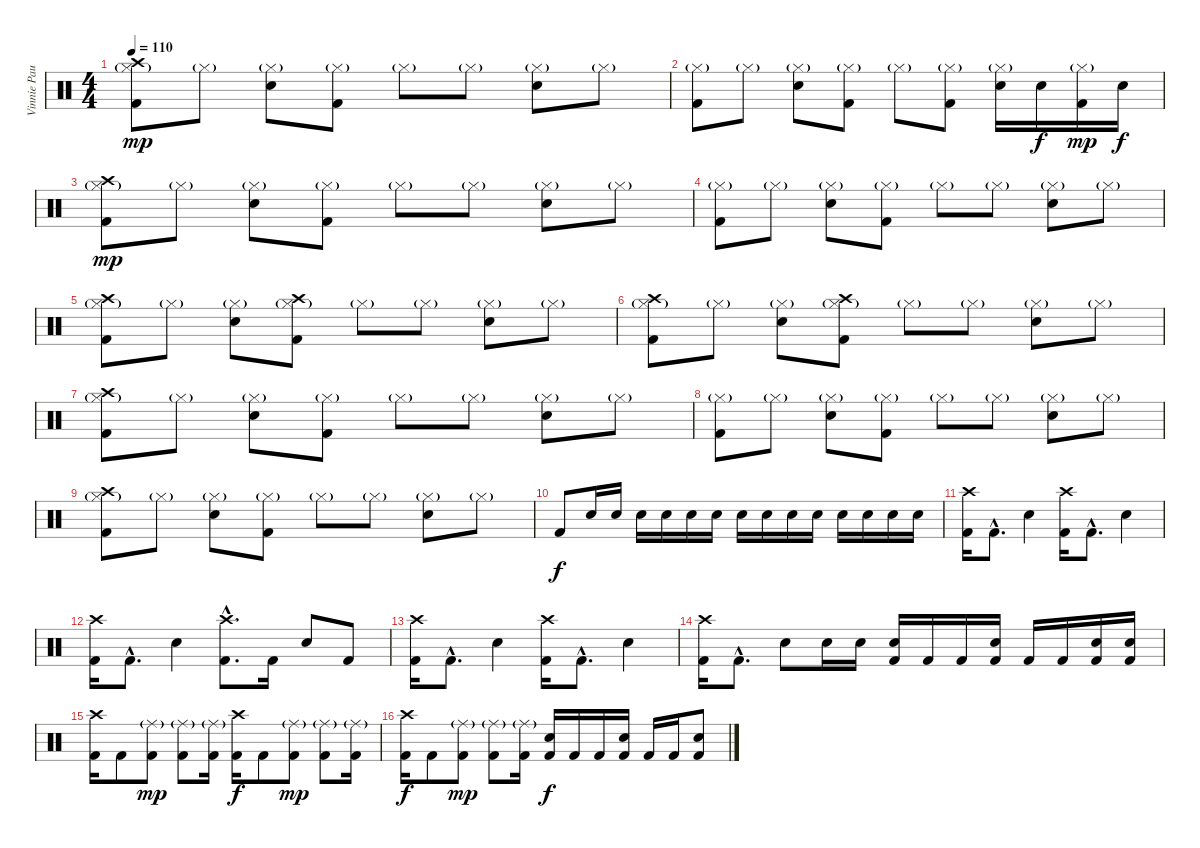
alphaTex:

\track ("Vinnie Paul" "Vinnie Pau") {instrument percussion}
\staff {score}
\articulation defaults
\ts (4 4)
\tempo 110
\clef neutral
\ks c
("Crash high (hit)" "Hi-Hat (closed)"{g} "Kick (hit) 2").8{dy mp} "Hi-Hat (closed)"{g}.8 ("Hi-Hat (closed)"{g} "Electric Snare (hit)").8 ("Hi-Hat (closed)"{g} "Kick (hit) 2").8 "Hi-Hat (closed)"{g}.8 "Hi-Hat (closed)"{g}.8 ("Hi-Hat (closed)"{g} "Electric Snare (hit)").8 "Hi-Hat (closed)"{g}.8 |
("Hi-Hat (closed)"{g} "Kick (hit) 2").8 "Hi-Hat (closed)"{g}.8 ("Hi-Hat (closed)"{g} "Electric Snare (hit)").8 ("Hi-Hat (closed)"{g} "Kick (hit) 2").8 "Hi-Hat (closed)"{g}.8 ("Hi-Hat (closed)"{g} "Kick (hit) 2").8 ("Hi-Hat (closed)"{g} "Electric Snare (hit)").16 "Electric Snare (hit)".16{dy f} ("Hi-Hat (closed)"{g} "Kick (hit) 2").16{dy mp} "Electric Snare (hit)".16{dy f} |
("Crash high (hit)" "Hi-Hat (closed)"{g} "Kick (hit) 2").8{dy mp} "Hi-Hat (closed)"{g}.8 ("Hi-Hat (closed)"{g} "Electric Snare (hit)").8 ("Hi-Hat (closed)"{g} "Kick (hit) 2").8 "Hi-Hat (closed)"{g}.8 "Hi-Hat (closed)"{g}.8 ("Hi-Hat (closed)"{g} "Electric Snare (hit)").8 "Hi-Hat (closed)"{g}.8 |
("Hi-Hat (closed)"{g} "Kick (hit) 2").8 "Hi-Hat (closed)"{g}.8 ("Hi-Hat (closed)"{g} "Electric Snare (hit)").8 ("Hi-Hat (closed)"{g} "Kick (hit) 2").8 "Hi-Hat (closed)"{g}.8 "Hi-Hat (closed)"{g}.8 ("Hi-Hat (closed)"{g} "Electric Snare (hit)").8 "Hi-Hat (closed)"{g}.8 |
("Crash high (hit)" "Hi-Hat (closed)"{g} "Kick (hit) 2").8 "Hi-Hat (closed)"{g}.8 ("Hi-Hat (closed)"{g} "Electric Snare (hit)").8 ("Crash high (hit)" "Hi-Hat (closed)"{g} "Kick (hit) 2").8 "Hi-Hat (closed)"{g}.8 "Hi-Hat (closed)"{g}.8 ("Hi-Hat (closed)"{g} "Electric Snare (hit)").8 "Hi-Hat (closed)"{g}.8 |
("Crash high (hit)" "Hi-Hat (closed)"{g} "Kick (hit) 2").8 "Hi-Hat (closed)"{g}.8 ("Hi-Hat (closed)"{g} "Electric Snare (hit)").8 ("Crash high (hit)" "Hi-Hat (closed)"{g} "Kick (hit) 2").8 "Hi-Hat (closed)"{g}.8 "Hi-Hat (closed)"{g}.8 ("Hi-Hat (closed)"{g} "Electric Snare (hit)").8 "Hi-Hat (closed)"{g}.8 |
("Crash high (hit)" "Hi-Hat (closed)"{g} "Kick (hit) 2").8 "Hi-Hat (closed)"{g}.8 ("Hi-Hat (closed)"{g} "Electric Snare (hit)").8 ("Hi-Hat (closed)"{g} "Kick (hit) 2").8 "Hi-Hat (closed)"{g}.8 "Hi-Hat (closed)"{g}.8 ("Hi-Hat (closed)"{g} "Electric Snare (hit)").8 "Hi-Hat (closed)"{g}.8 |
("Hi-Hat (closed)"{g} "Kick (hit) 2").8 "Hi-Hat (closed)"{g}.8 ("Hi-Hat (closed)"{g} "Electric Snare (hit)").8 ("Hi-Hat (closed)"{g} "Kick (hit) 2").8 "Hi-Hat (closed)"{g}.8 "Hi-Hat (closed)"{g}.8 ("Hi-Hat (closed)"{g} "Electric Snare (hit)").8 "Hi-Hat (closed)"{g}.8 |
("Crash high (hit)" "Hi-Hat (closed)"{g} "Kick (hit) 2").8 "Hi-Hat (closed)"{g}.8 ("Hi-Hat (closed)"{g} "Electric Snare (hit)").8 ("Hi-Hat (closed)"{g} "Kick (hit) 2").8 "Hi-Hat (closed)"{g}.8 "Hi-Hat (closed)"{g}.8 ("Hi-Hat (closed)"{g} "Electric Snare (hit)").8 "Hi-Hat (closed)"{g}.8 |
"Kick (hit) 2".8{dy f} "Electric Snare (hit)".16 "Electric Snare (hit)".16 "Electric Snare (hit)".16 "Electric Snare (hit)".16 "Electric Snare (hit)".16 "Electric Snare (hit)".16 "Electric Snare (hit)".16 "Electric Snare (hit)".16 "Electric Snare (hit)".16 "Electric Snare (hit)".16 "Electric Snare (hit)".16 "Electric Snare (hit)".16 "Electric Snare (hit)".16 "Electric Snare (hit)".16 |
("Crash high (hit)" "Kick (hit) 2").16 "Kick (hit) 2"{hac}.8{d} "Electric Snare (hit)".4 ("Crash high (hit)" "Kick (hit) 2").16 "Kick (hit) 2"{hac}.8{d} "Electric Snare (hit)".4 |
("Crash high (hit)" "Kick (hit) 2").16 "Kick (hit) 2"{hac}.8{d} "Electric Snare (hit)".4 ("Crash high (hit)"{hac} "Kick (hit) 2"{hac}).8{d} "Kick (hit) 2".16 "Electric Snare (hit)".8 "Kick (hit) 2".8 |
("Crash high (hit)" "Kick (hit) 2").16 "Kick (hit) 2"{hac}.8{d} "Electric Snare (hit)".4 ("Crash high (hit)" "Kick (hit) 2").16 "Kick (hit) 2"{hac}.8{d} "Electric Snare (hit)".4 |
("Crash high (hit)" "Kick (hit) 2").16 "Kick (hit) 2"{hac}.8{d} "Electric Snare (hit)".8 "Electric Snare (hit)".16 "Electric Snare (hit)".16 ("Electric Snare (hit)" "Kick (hit) 2").16 "Kick (hit) 2".16 "Kick (hit) 2".16 ("Electric Snare (hit)" "Kick (hit) 2").16 "Kick (hit) 2".16 "Kick (hit) 2".16 ("Electric Snare (hit)" "Kick (hit) 2").16 ("Electric Snare (hit)" "Kick (hit) 2").16 |
("Crash high (hit)" "Kick (hit) 2").16 "Kick (hit) 2".8 ("Ride (middle)"{g} "Kick (hit) 2").8{dy mp} ("Ride (middle)"{g} "Kick (hit) 2").8 ("Ride (middle)"{g} "Kick (hit) 2").16 ("Crash high (hit)" "Kick (hit) 2").16{dy f} "Kick (hit) 2".8 ("Ride (middle)"{g} "Kick (hit) 2").8{dy mp} ("Ride (middle)"{g} "Kick (hit) 2").8 ("Ride (middle)"{g} "Kick (hit) 2").16 |
("Crash high (hit)" "Kick (hit) 2").16{dy f} "Kick (hit) 2".8 ("Ride (middle)"{g} "Kick (hit) 2").8{dy mp} ("Ride (middle)"{g} "Kick (hit) 2").8 ("Ride (middle)"{g} "Kick (hit) 2").16 ("Electric Snare (hit)" "Kick (hit) 2").16{dy f} "Kick (hit) 2".16 "Kick (hit) 2".16 ("Electric Snare (hit)" "Kick (hit) 2").16 "Kick (hit) 2".16 "Kick (hit) 2".16 ("Electric Snare (hit)" "Kick (hit) 2").8
